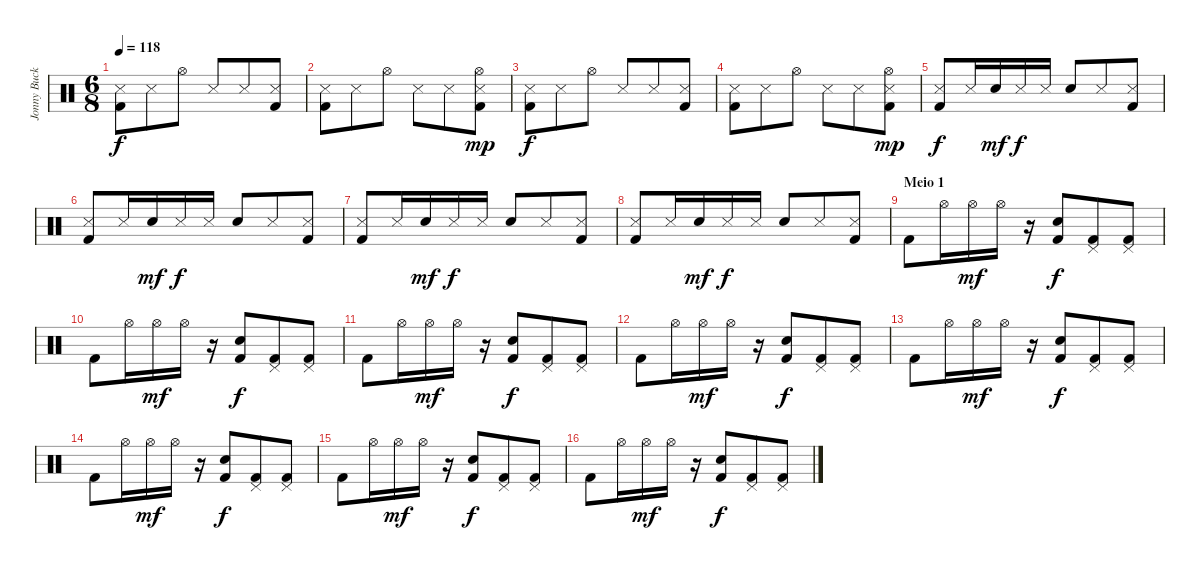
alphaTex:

\track ("Jonny Buckland (batera)" "Jonny Buck") {instrument percussion}
\staff {score}
\articulation defaults
\ts (6 8)
\tempo 118
\clef neutral
\ks c
("Snare (side stick) 3" "Kick (hit) 2").8{dy f} "Snare (side stick) 3".8 "Hi-Hat (open)".8 "Snare (side stick) 3".8 "Snare (side stick) 3".8 ("Snare (side stick) 3" "Kick (hit) 2").8 |
("Snare (side stick) 3" "Kick (hit) 2").8 "Snare (side stick) 3".8 "Hi-Hat (open)".8 "Snare (side stick) 3".8 "Snare (side stick) 3".8 ("Snare (side stick) 3" "Hi-Hat (open)" "Kick (hit) 2").8{dy mp} |
("Snare (side stick) 3" "Kick (hit) 2").8{dy f} "Snare (side stick) 3".8 "Hi-Hat (open)".8 "Snare (side stick) 3".8 "Snare (side stick) 3".8 ("Snare (side stick) 3" "Kick (hit) 2").8 |
("Snare (side stick) 3" "Kick (hit) 2").8 "Snare (side stick) 3".8 "Hi-Hat (open)".8 "Snare (side stick) 3".8 "Snare (side stick) 3".8 ("Snare (side stick) 3" "Hi-Hat (open)" "Kick (hit) 2").8{dy mp} |
("Snare (side stick) 3" "Kick (hit) 2").8{dy f} "Snare (side stick) 3".16 "Snare (hit) 2".16{dy mf} "Snare (side stick) 3".16{dy f} "Snare (side stick) 3".16 "Electric Snare (hit)".8 "Snare (side stick) 3".8 ("Snare (side stick) 3" "Kick (hit) 2").8 |
("Snare (side stick) 3" "Kick (hit) 2").8 "Snare (side stick) 3".16 "Snare (hit) 2".16{dy mf} "Snare (side stick) 3".16{dy f} "Snare (side stick) 3".16 "Electric Snare (hit)".8 "Snare (side stick) 3".8 ("Snare (side stick) 3" "Kick (hit) 2").8 |
("Snare (side stick) 3" "Kick (hit) 2").8 "Snare (side stick) 3".16 "Snare (hit) 2".16{dy mf} "Snare (side stick) 3".16{dy f} "Snare (side stick) 3".16 "Electric Snare (hit)".8 "Snare (side stick) 3".8 ("Snare (side stick) 3" "Kick (hit) 2").8 |
("Snare (side stick) 3" "Kick (hit) 2").8 "Snare (side stick) 3".16 "Snare (hit) 2".16{dy mf} "Snare (side stick) 3".16{dy f} "Snare (side stick) 3".16 "Electric Snare (hit)".8 "Snare (side stick) 3".8 ("Snare (side stick) 3" "Kick (hit) 2").8 |
\section ("" "Meio 1")
"Kick (hit) 2".8 "Hi-Hat (open)".16 "Hi-Hat (open)".16{dy mf} "Hi-Hat (open)".16 r.16 ("Electric Snare (hit)" "Kick (hit) 2").8{dy f} ("Pedal Hi-Hat (hit)" "Kick (hit) 2").8 ("Pedal Hi-Hat (hit)" "Kick (hit) 2").8 |
"Kick (hit) 2".8 "Hi-Hat (open)".16 "Hi-Hat (open)".16{dy mf} "Hi-Hat (open)".16 r.16 ("Electric Snare (hit)" "Kick (hit) 2").8{dy f} ("Pedal Hi-Hat (hit)" "Kick (hit) 2").8 ("Pedal Hi-Hat (hit)" "Kick (hit) 2").8 |
"Kick (hit) 2".8 "Hi-Hat (open)".16 "Hi-Hat (open)".16{dy mf} "Hi-Hat (open)".16 r.16 ("Electric Snare (hit)" "Kick (hit) 2").8{dy f} ("Pedal Hi-Hat (hit)" "Kick (hit) 2").8 ("Pedal Hi-Hat (hit)" "Kick (hit) 2").8 |
"Kick (hit) 2".8 "Hi-Hat (open)".16 "Hi-Hat (open)".16{dy mf} "Hi-Hat (open)".16 r.16 ("Electric Snare (hit)" "Kick (hit) 2").8{dy f} ("Pedal Hi-Hat (hit)" "Kick (hit) 2").8 ("Pedal Hi-Hat (hit)" "Kick (hit) 2").8 |
"Kick (hit) 2".8 "Hi-Hat (open)".16 "Hi-Hat (open)".16{dy mf} "Hi-Hat (open)".16 r.16 ("Electric Snare (hit)" "Kick (hit) 2").8{dy f} ("Pedal Hi-Hat (hit)" "Kick (hit) 2").8 ("Pedal Hi-Hat (hit)" "Kick (hit) 2").8 |
"Kick (hit) 2".8 "Hi-Hat (open)".16 "Hi-Hat (open)".16{dy mf} "Hi-Hat (open)".16 r.16 ("Electric Snare (hit)" "Kick (hit) 2").8{dy f} ("Pedal Hi-Hat (hit)" "Kick (hit) 2").8 ("Pedal Hi-Hat (hit)" "Kick (hit) 2").8 |
"Kick (hit) 2".8 "Hi-Hat (open)".16 "Hi-Hat (open)".16{dy mf} "Hi-Hat (open)".16 r.16 ("Electric Snare (hit)" "Kick (hit) 2").8{dy f} ("Pedal Hi-Hat (hit)" "Kick (hit) 2").8 ("Pedal Hi-Hat (hit)" "Kick (hit) 2").8 |
"Kick (hit) 2".8 "Hi-Hat (open)".16 "Hi-Hat (open)".16{dy mf} "Hi-Hat (open)".16 r.16 ("Electric Snare (hit)" "Kick (hit) 2").8{dy f} ("Pedal Hi-Hat (hit)" "Kick (hit) 2").8 ("Pedal Hi-Hat (hit)" "Kick (hit) 2").8
